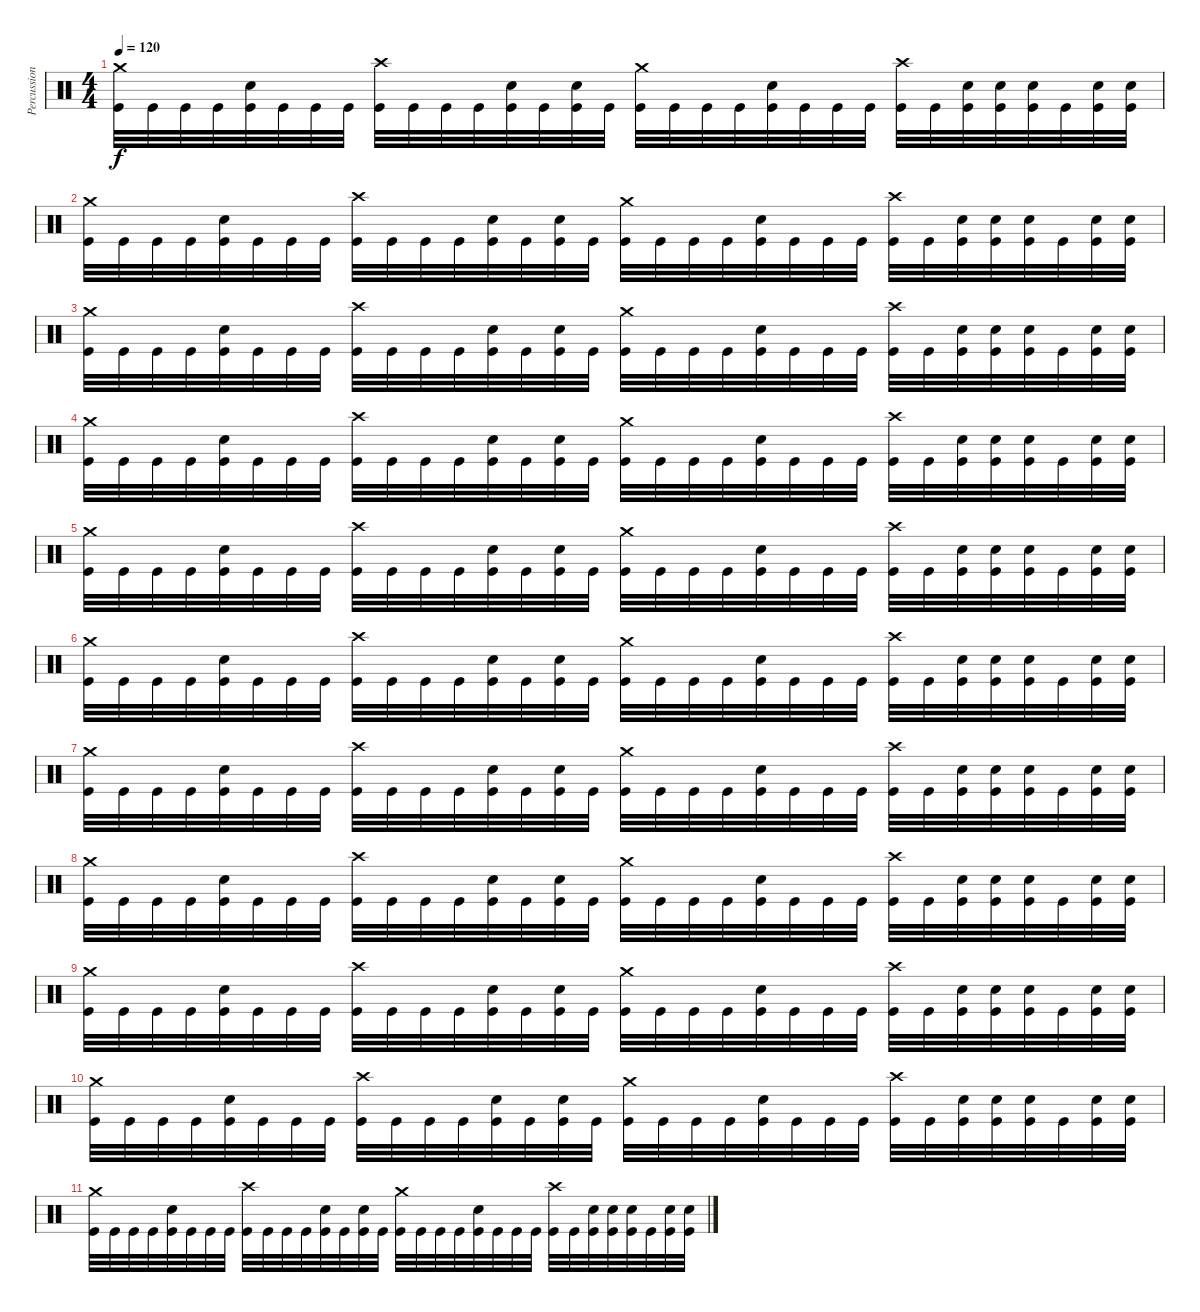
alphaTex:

\track ("Percussion" "Percussion") {instrument percussion}
\staff {score}
\articulation defaults
\ts (4 4)
\tempo 120
\clef neutral
\ks c
("Crash medium (hit)" "Kick (hit)").32{dy f} "Kick (hit)".32 "Kick (hit)".32 "Kick (hit)".32 ("Electric Snare (hit)" "Kick (hit)").32 "Kick (hit)".32 "Kick (hit)".32 "Kick (hit)".32 ("Crash high (hit)" "Kick (hit)").32 "Kick (hit)".32 "Kick (hit)".32 "Kick (hit)".32 ("Electric Snare (hit)" "Kick (hit)").32 "Kick (hit)".32 ("Electric Snare (hit)" "Kick (hit)").32 "Kick (hit)".32 ("Crash medium (hit)" "Kick (hit)").32 "Kick (hit)".32 "Kick (hit)".32 "Kick (hit)".32 ("Electric Snare (hit)" "Kick (hit)").32 "Kick (hit)".32 "Kick (hit)".32 "Kick (hit)".32 ("Crash high (hit)" "Kick (hit)").32 "Kick (hit)".32 ("Electric Snare (hit)" "Kick (hit)").32 ("Electric Snare (hit)" "Kick (hit)").32 ("Electric Snare (hit)" "Kick (hit)").32 "Kick (hit)".32 ("Electric Snare (hit)" "Kick (hit)").32 ("Electric Snare (hit)" "Kick (hit)").32 |
("Crash medium (hit)" "Kick (hit)").32{volume 9} "Kick (hit)".32 "Kick (hit)".32 "Kick (hit)".32 ("Electric Snare (hit)" "Kick (hit)").32 "Kick (hit)".32 "Kick (hit)".32 "Kick (hit)".32 ("Crash high (hit)" "Kick (hit)").32 "Kick (hit)".32 "Kick (hit)".32 "Kick (hit)".32 ("Electric Snare (hit)" "Kick (hit)").32 "Kick (hit)".32 ("Electric Snare (hit)" "Kick (hit)").32 "Kick (hit)".32 ("Crash medium (hit)" "Kick (hit)").32 "Kick (hit)".32 "Kick (hit)".32 "Kick (hit)".32 ("Electric Snare (hit)" "Kick (hit)").32 "Kick (hit)".32 "Kick (hit)".32 "Kick (hit)".32 ("Crash high (hit)" "Kick (hit)").32 "Kick (hit)".32 ("Electric Snare (hit)" "Kick (hit)").32 ("Electric Snare (hit)" "Kick (hit)").32 ("Electric Snare (hit)" "Kick (hit)").32 "Kick (hit)".32 ("Electric Snare (hit)" "Kick (hit)").32 ("Electric Snare (hit)" "Kick (hit)").32 |
("Crash medium (hit)" "Kick (hit)").32 "Kick (hit)".32 "Kick (hit)".32 "Kick (hit)".32 ("Electric Snare (hit)" "Kick (hit)").32 "Kick (hit)".32 "Kick (hit)".32 "Kick (hit)".32 ("Crash high (hit)" "Kick (hit)").32 "Kick (hit)".32 "Kick (hit)".32 "Kick (hit)".32 ("Electric Snare (hit)" "Kick (hit)").32 "Kick (hit)".32 ("Electric Snare (hit)" "Kick (hit)").32 "Kick (hit)".32 ("Crash medium (hit)" "Kick (hit)").32 "Kick (hit)".32 "Kick (hit)".32 "Kick (hit)".32 ("Electric Snare (hit)" "Kick (hit)").32 "Kick (hit)".32 "Kick (hit)".32 "Kick (hit)".32 ("Crash high (hit)" "Kick (hit)").32 "Kick (hit)".32 ("Electric Snare (hit)" "Kick (hit)").32 ("Electric Snare (hit)" "Kick (hit)").32 ("Electric Snare (hit)" "Kick (hit)").32 "Kick (hit)".32 ("Electric Snare (hit)" "Kick (hit)").32 ("Electric Snare (hit)" "Kick (hit)").32 |
("Crash medium (hit)" "Kick (hit)").32{volume 6} "Kick (hit)".32 "Kick (hit)".32 "Kick (hit)".32 ("Electric Snare (hit)" "Kick (hit)").32 "Kick (hit)".32 "Kick (hit)".32 "Kick (hit)".32 ("Crash high (hit)" "Kick (hit)").32 "Kick (hit)".32 "Kick (hit)".32 "Kick (hit)".32 ("Electric Snare (hit)" "Kick (hit)").32 "Kick (hit)".32 ("Electric Snare (hit)" "Kick (hit)").32 "Kick (hit)".32 ("Crash medium (hit)" "Kick (hit)").32 "Kick (hit)".32 "Kick (hit)".32 "Kick (hit)".32 ("Electric Snare (hit)" "Kick (hit)").32 "Kick (hit)".32 "Kick (hit)".32 "Kick (hit)".32 ("Crash high (hit)" "Kick (hit)").32 "Kick (hit)".32 ("Electric Snare (hit)" "Kick (hit)").32 ("Electric Snare (hit)" "Kick (hit)").32 ("Electric Snare (hit)" "Kick (hit)").32 "Kick (hit)".32 ("Electric Snare (hit)" "Kick (hit)").32 ("Electric Snare (hit)" "Kick (hit)").32 |
("Crash medium (hit)" "Kick (hit)").32 "Kick (hit)".32 "Kick (hit)".32 "Kick (hit)".32 ("Electric Snare (hit)" "Kick (hit)").32 "Kick (hit)".32 "Kick (hit)".32 "Kick (hit)".32 ("Crash high (hit)" "Kick (hit)").32 "Kick (hit)".32 "Kick (hit)".32 "Kick (hit)".32 ("Electric Snare (hit)" "Kick (hit)").32 "Kick (hit)".32 ("Electric Snare (hit)" "Kick (hit)").32 "Kick (hit)".32 ("Crash medium (hit)" "Kick (hit)").32 "Kick (hit)".32 "Kick (hit)".32 "Kick (hit)".32 ("Electric Snare (hit)" "Kick (hit)").32 "Kick (hit)".32 "Kick (hit)".32 "Kick (hit)".32 ("Crash high (hit)" "Kick (hit)").32 "Kick (hit)".32 ("Electric Snare (hit)" "Kick (hit)").32 ("Electric Snare (hit)" "Kick (hit)").32 ("Electric Snare (hit)" "Kick (hit)").32 "Kick (hit)".32 ("Electric Snare (hit)" "Kick (hit)").32 ("Electric Snare (hit)" "Kick (hit)").32 |
("Crash medium (hit)" "Kick (hit)").32{volume 3} "Kick (hit)".32 "Kick (hit)".32 "Kick (hit)".32 ("Electric Snare (hit)" "Kick (hit)").32 "Kick (hit)".32 "Kick (hit)".32 "Kick (hit)".32 ("Crash high (hit)" "Kick (hit)").32 "Kick (hit)".32 "Kick (hit)".32 "Kick (hit)".32 ("Electric Snare (hit)" "Kick (hit)").32 "Kick (hit)".32 ("Electric Snare (hit)" "Kick (hit)").32 "Kick (hit)".32 ("Crash medium (hit)" "Kick (hit)").32 "Kick (hit)".32 "Kick (hit)".32 "Kick (hit)".32 ("Electric Snare (hit)" "Kick (hit)").32 "Kick (hit)".32 "Kick (hit)".32 "Kick (hit)".32 ("Crash high (hit)" "Kick (hit)").32 "Kick (hit)".32 ("Electric Snare (hit)" "Kick (hit)").32 ("Electric Snare (hit)" "Kick (hit)").32 ("Electric Snare (hit)" "Kick (hit)").32 "Kick (hit)".32 ("Electric Snare (hit)" "Kick (hit)").32 ("Electric Snare (hit)" "Kick (hit)").32 |
("Crash medium (hit)" "Kick (hit)").32 "Kick (hit)".32 "Kick (hit)".32 "Kick (hit)".32 ("Electric Snare (hit)" "Kick (hit)").32 "Kick (hit)".32 "Kick (hit)".32 "Kick (hit)".32 ("Crash high (hit)" "Kick (hit)").32 "Kick (hit)".32 "Kick (hit)".32 "Kick (hit)".32 ("Electric Snare (hit)" "Kick (hit)").32 "Kick (hit)".32 ("Electric Snare (hit)" "Kick (hit)").32 "Kick (hit)".32 ("Crash medium (hit)" "Kick (hit)").32 "Kick (hit)".32 "Kick (hit)".32 "Kick (hit)".32 ("Electric Snare (hit)" "Kick (hit)").32 "Kick (hit)".32 "Kick (hit)".32 "Kick (hit)".32 ("Crash high (hit)" "Kick (hit)").32 "Kick (hit)".32 ("Electric Snare (hit)" "Kick (hit)").32 ("Electric Snare (hit)" "Kick (hit)").32 ("Electric Snare (hit)" "Kick (hit)").32 "Kick (hit)".32 ("Electric Snare (hit)" "Kick (hit)").32 ("Electric Snare (hit)" "Kick (hit)").32 |
("Crash medium (hit)" "Kick (hit)").32{volume 0} "Kick (hit)".32 "Kick (hit)".32 "Kick (hit)".32 ("Electric Snare (hit)" "Kick (hit)").32 "Kick (hit)".32 "Kick (hit)".32 "Kick (hit)".32 ("Crash high (hit)" "Kick (hit)").32 "Kick (hit)".32 "Kick (hit)".32 "Kick (hit)".32 ("Electric Snare (hit)" "Kick (hit)").32 "Kick (hit)".32 ("Electric Snare (hit)" "Kick (hit)").32 "Kick (hit)".32 ("Crash medium (hit)" "Kick (hit)").32 "Kick (hit)".32 "Kick (hit)".32 "Kick (hit)".32 ("Electric Snare (hit)" "Kick (hit)").32 "Kick (hit)".32 "Kick (hit)".32 "Kick (hit)".32 ("Crash high (hit)" "Kick (hit)").32 "Kick (hit)".32 ("Electric Snare (hit)" "Kick (hit)").32 ("Electric Snare (hit)" "Kick (hit)").32 ("Electric Snare (hit)" "Kick (hit)").32 "Kick (hit)".32 ("Electric Snare (hit)" "Kick (hit)").32 ("Electric Snare (hit)" "Kick (hit)").32 |
("Crash medium (hit)" "Kick (hit)").32 "Kick (hit)".32 "Kick (hit)".32 "Kick (hit)".32 ("Electric Snare (hit)" "Kick (hit)").32 "Kick (hit)".32 "Kick (hit)".32 "Kick (hit)".32 ("Crash high (hit)" "Kick (hit)").32 "Kick (hit)".32 "Kick (hit)".32 "Kick (hit)".32 ("Electric Snare (hit)" "Kick (hit)").32 "Kick (hit)".32 ("Electric Snare (hit)" "Kick (hit)").32 "Kick (hit)".32 ("Crash medium (hit)" "Kick (hit)").32 "Kick (hit)".32 "Kick (hit)".32 "Kick (hit)".32 ("Electric Snare (hit)" "Kick (hit)").32 "Kick (hit)".32 "Kick (hit)".32 "Kick (hit)".32 ("Crash high (hit)" "Kick (hit)").32 "Kick (hit)".32 ("Electric Snare (hit)" "Kick (hit)").32 ("Electric Snare (hit)" "Kick (hit)").32 ("Electric Snare (hit)" "Kick (hit)").32 "Kick (hit)".32 ("Electric Snare (hit)" "Kick (hit)").32 ("Electric Snare (hit)" "Kick (hit)").32 |
("Crash medium (hit)" "Kick (hit)").32 "Kick (hit)".32 "Kick (hit)".32 "Kick (hit)".32 ("Electric Snare (hit)" "Kick (hit)").32 "Kick (hit)".32 "Kick (hit)".32 "Kick (hit)".32 ("Crash high (hit)" "Kick (hit)").32 "Kick (hit)".32 "Kick (hit)".32 "Kick (hit)".32 ("Electric Snare (hit)" "Kick (hit)").32 "Kick (hit)".32 ("Electric Snare (hit)" "Kick (hit)").32 "Kick (hit)".32 ("Crash medium (hit)" "Kick (hit)").32 "Kick (hit)".32 "Kick (hit)".32 "Kick (hit)".32 ("Electric Snare (hit)" "Kick (hit)").32 "Kick (hit)".32 "Kick (hit)".32 "Kick (hit)".32 ("Crash high (hit)" "Kick (hit)").32 "Kick (hit)".32 ("Electric Snare (hit)" "Kick (hit)").32 ("Electric Snare (hit)" "Kick (hit)").32 ("Electric Snare (hit)" "Kick (hit)").32 "Kick (hit)".32 ("Electric Snare (hit)" "Kick (hit)").32 ("Electric Snare (hit)" "Kick (hit)").32 |
("Crash medium (hit)" "Kick (hit)").32 "Kick (hit)".32 "Kick (hit)".32 "Kick (hit)".32 ("Electric Snare (hit)" "Kick (hit)").32 "Kick (hit)".32 "Kick (hit)".32 "Kick (hit)".32 ("Crash high (hit)" "Kick (hit)").32 "Kick (hit)".32 "Kick (hit)".32 "Kick (hit)".32 ("Electric Snare (hit)" "Kick (hit)").32 "Kick (hit)".32 ("Electric Snare (hit)" "Kick (hit)").32 "Kick (hit)".32 ("Crash medium (hit)" "Kick (hit)").32 "Kick (hit)".32 "Kick (hit)".32 "Kick (hit)".32 ("Electric Snare (hit)" "Kick (hit)").32 "Kick (hit)".32 "Kick (hit)".32 "Kick (hit)".32 ("Crash high (hit)" "Kick (hit)").32 "Kick (hit)".32 ("Electric Snare (hit)" "Kick (hit)").32 ("Electric Snare (hit)" "Kick (hit)").32 ("Electric Snare (hit)" "Kick (hit)").32 "Kick (hit)".32 ("Electric Snare (hit)" "Kick (hit)").32 ("Electric Snare (hit)" "Kick (hit)").32
